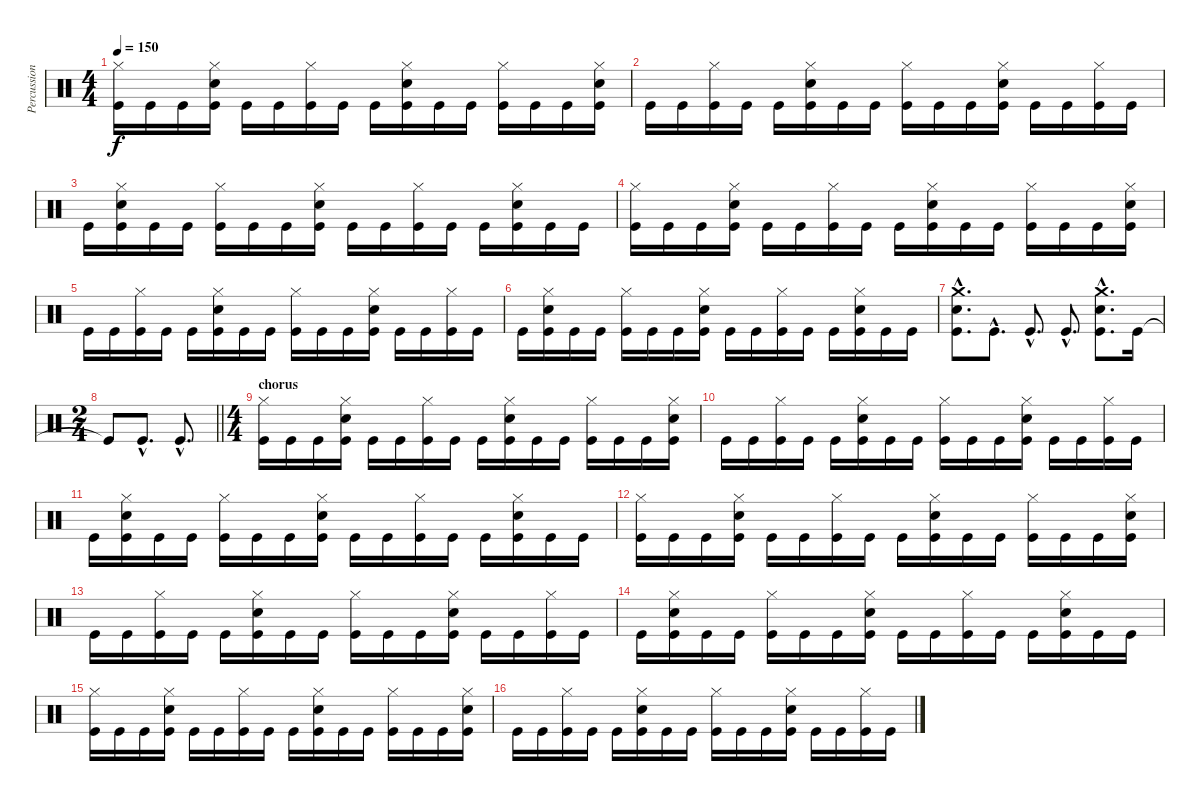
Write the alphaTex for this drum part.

\track ("Percussion" "Percussion") {instrument percussion}
\staff {score}
\articulation defaults
\ts (4 4)
\tempo 150
\clef neutral
\ks c
("Hi-Hat (closed)" "Kick (hit)").16{dy f} "Kick (hit)".16 "Kick (hit)".16 ("Hi-Hat (closed)" "Kick (hit)" "Snare (hit) 2").16 "Kick (hit)".16 "Kick (hit)".16 ("Hi-Hat (closed)" "Kick (hit)").16 "Kick (hit)".16 "Kick (hit)".16 ("Hi-Hat (closed)" "Kick (hit)" "Snare (hit) 2").16 "Kick (hit)".16 "Kick (hit)".16 ("Hi-Hat (closed)" "Kick (hit)").16 "Kick (hit)".16 "Kick (hit)".16 ("Hi-Hat (closed)" "Kick (hit)" "Snare (hit) 2").16 |
"Kick (hit)".16 "Kick (hit)".16 ("Hi-Hat (closed)" "Kick (hit)").16 "Kick (hit)".16 "Kick (hit)".16 ("Hi-Hat (closed)" "Kick (hit)" "Snare (hit) 2").16 "Kick (hit)".16 "Kick (hit)".16 ("Hi-Hat (closed)" "Kick (hit)").16 "Kick (hit)".16 "Kick (hit)".16 ("Hi-Hat (closed)" "Kick (hit)" "Snare (hit) 2").16 "Kick (hit)".16 "Kick (hit)".16 ("Hi-Hat (closed)" "Kick (hit)").16 "Kick (hit)".16 |
"Kick (hit)".16 ("Hi-Hat (closed)" "Kick (hit)" "Snare (hit) 2").16 "Kick (hit)".16 "Kick (hit)".16 ("Hi-Hat (closed)" "Kick (hit)").16 "Kick (hit)".16 "Kick (hit)".16 ("Hi-Hat (closed)" "Kick (hit)" "Snare (hit) 2").16 "Kick (hit)".16 "Kick (hit)".16 ("Hi-Hat (closed)" "Kick (hit)").16 "Kick (hit)".16 "Kick (hit)".16 ("Hi-Hat (closed)" "Kick (hit)" "Snare (hit) 2").16 "Kick (hit)".16 "Kick (hit)".16 |
("Hi-Hat (closed)" "Kick (hit)").16 "Kick (hit)".16 "Kick (hit)".16 ("Hi-Hat (closed)" "Kick (hit)" "Snare (hit) 2").16 "Kick (hit)".16 "Kick (hit)".16 ("Hi-Hat (closed)" "Kick (hit)").16 "Kick (hit)".16 "Kick (hit)".16 ("Hi-Hat (closed)" "Kick (hit)" "Snare (hit) 2").16 "Kick (hit)".16 "Kick (hit)".16 ("Hi-Hat (closed)" "Kick (hit)").16 "Kick (hit)".16 "Kick (hit)".16 ("Hi-Hat (closed)" "Kick (hit)" "Snare (hit) 2").16 |
"Kick (hit)".16 "Kick (hit)".16 ("Hi-Hat (closed)" "Kick (hit)").16 "Kick (hit)".16 "Kick (hit)".16 ("Hi-Hat (closed)" "Kick (hit)" "Snare (hit) 2").16 "Kick (hit)".16 "Kick (hit)".16 ("Hi-Hat (closed)" "Kick (hit)").16 "Kick (hit)".16 "Kick (hit)".16 ("Hi-Hat (closed)" "Kick (hit)" "Snare (hit) 2").16 "Kick (hit)".16 "Kick (hit)".16 ("Hi-Hat (closed)" "Kick (hit)").16 "Kick (hit)".16 |
"Kick (hit)".16 ("Hi-Hat (closed)" "Kick (hit)" "Snare (hit) 2").16 "Kick (hit)".16 "Kick (hit)".16 ("Hi-Hat (closed)" "Kick (hit)").16 "Kick (hit)".16 "Kick (hit)".16 ("Hi-Hat (closed)" "Kick (hit)" "Snare (hit) 2").16 "Kick (hit)".16 "Kick (hit)".16 ("Hi-Hat (closed)" "Kick (hit)").16 "Kick (hit)".16 "Kick (hit)".16 ("Hi-Hat (closed)" "Kick (hit)" "Snare (hit) 2").16 "Kick (hit)".16 "Kick (hit)".16 |
("Kick (hit)"{hac} "Snare (hit) 2"{hac} "Crash medium (hit)"{hac}).8{d} "Kick (hit)"{hac}.8{d} "Kick (hit)"{hac}.8{d} "Kick (hit)"{hac}.8{d} ("Kick (hit)"{hac} "Snare (hit) 2"{hac} "Crash medium (hit)"{hac}).8{d} "Kick (hit)".16 |
\ts (2 4)
\barLineRight lightlight "Kick (hit)"{t}.8 "Kick (hit)"{hac}.8{d} "Kick (hit)"{hac}.8{d}
|
\ts (4 4)
\section ("" "chorus")
("Hi-Hat (closed)" "Kick (hit)").16 "Kick (hit)".16 "Kick (hit)".16 ("Hi-Hat (closed)" "Kick (hit)" "Snare (hit) 2").16 "Kick (hit)".16 "Kick (hit)".16 ("Hi-Hat (closed)" "Kick (hit)").16 "Kick (hit)".16 "Kick (hit)".16 ("Hi-Hat (closed)" "Kick (hit)" "Snare (hit) 2").16 "Kick (hit)".16 "Kick (hit)".16 ("Hi-Hat (closed)" "Kick (hit)").16 "Kick (hit)".16 "Kick (hit)".16 ("Hi-Hat (closed)" "Kick (hit)" "Snare (hit) 2").16 |
"Kick (hit)".16 "Kick (hit)".16 ("Hi-Hat (closed)" "Kick (hit)").16 "Kick (hit)".16 "Kick (hit)".16 ("Hi-Hat (closed)" "Kick (hit)" "Snare (hit) 2").16 "Kick (hit)".16 "Kick (hit)".16 ("Hi-Hat (closed)" "Kick (hit)").16 "Kick (hit)".16 "Kick (hit)".16 ("Hi-Hat (closed)" "Kick (hit)" "Snare (hit) 2").16 "Kick (hit)".16 "Kick (hit)".16 ("Hi-Hat (closed)" "Kick (hit)").16 "Kick (hit)".16 |
"Kick (hit)".16 ("Hi-Hat (closed)" "Kick (hit)" "Snare (hit) 2").16 "Kick (hit)".16 "Kick (hit)".16 ("Hi-Hat (closed)" "Kick (hit)").16 "Kick (hit)".16 "Kick (hit)".16 ("Hi-Hat (closed)" "Kick (hit)" "Snare (hit) 2").16 "Kick (hit)".16 "Kick (hit)".16 ("Hi-Hat (closed)" "Kick (hit)").16 "Kick (hit)".16 "Kick (hit)".16 ("Hi-Hat (closed)" "Kick (hit)" "Snare (hit) 2").16 "Kick (hit)".16 "Kick (hit)".16 |
("Hi-Hat (closed)" "Kick (hit)").16 "Kick (hit)".16 "Kick (hit)".16 ("Hi-Hat (closed)" "Kick (hit)" "Snare (hit) 2").16 "Kick (hit)".16 "Kick (hit)".16 ("Hi-Hat (closed)" "Kick (hit)").16 "Kick (hit)".16 "Kick (hit)".16 ("Hi-Hat (closed)" "Kick (hit)" "Snare (hit) 2").16 "Kick (hit)".16 "Kick (hit)".16 ("Hi-Hat (closed)" "Kick (hit)").16 "Kick (hit)".16 "Kick (hit)".16 ("Hi-Hat (closed)" "Kick (hit)" "Snare (hit) 2").16 |
"Kick (hit)".16 "Kick (hit)".16 ("Hi-Hat (closed)" "Kick (hit)").16 "Kick (hit)".16 "Kick (hit)".16 ("Hi-Hat (closed)" "Kick (hit)" "Snare (hit) 2").16 "Kick (hit)".16 "Kick (hit)".16 ("Hi-Hat (closed)" "Kick (hit)").16 "Kick (hit)".16 "Kick (hit)".16 ("Hi-Hat (closed)" "Kick (hit)" "Snare (hit) 2").16 "Kick (hit)".16 "Kick (hit)".16 ("Hi-Hat (closed)" "Kick (hit)").16 "Kick (hit)".16 |
"Kick (hit)".16 ("Hi-Hat (closed)" "Kick (hit)" "Snare (hit) 2").16 "Kick (hit)".16 "Kick (hit)".16 ("Hi-Hat (closed)" "Kick (hit)").16 "Kick (hit)".16 "Kick (hit)".16 ("Hi-Hat (closed)" "Kick (hit)" "Snare (hit) 2").16 "Kick (hit)".16 "Kick (hit)".16 ("Hi-Hat (closed)" "Kick (hit)").16 "Kick (hit)".16 "Kick (hit)".16 ("Hi-Hat (closed)" "Kick (hit)" "Snare (hit) 2").16 "Kick (hit)".16 "Kick (hit)".16 |
("Hi-Hat (closed)" "Kick (hit)").16 "Kick (hit)".16 "Kick (hit)".16 ("Hi-Hat (closed)" "Kick (hit)" "Snare (hit) 2").16 "Kick (hit)".16 "Kick (hit)".16 ("Hi-Hat (closed)" "Kick (hit)").16 "Kick (hit)".16 "Kick (hit)".16 ("Hi-Hat (closed)" "Kick (hit)" "Snare (hit) 2").16 "Kick (hit)".16 "Kick (hit)".16 ("Hi-Hat (closed)" "Kick (hit)").16 "Kick (hit)".16 "Kick (hit)".16 ("Hi-Hat (closed)" "Kick (hit)" "Snare (hit) 2").16 |
"Kick (hit)".16 "Kick (hit)".16 ("Hi-Hat (closed)" "Kick (hit)").16 "Kick (hit)".16 "Kick (hit)".16 ("Hi-Hat (closed)" "Kick (hit)" "Snare (hit) 2").16 "Kick (hit)".16 "Kick (hit)".16 ("Hi-Hat (closed)" "Kick (hit)").16 "Kick (hit)".16 "Kick (hit)".16 ("Hi-Hat (closed)" "Kick (hit)" "Snare (hit) 2").16 "Kick (hit)".16 "Kick (hit)".16 ("Hi-Hat (closed)" "Kick (hit)").16 "Kick (hit)".16
